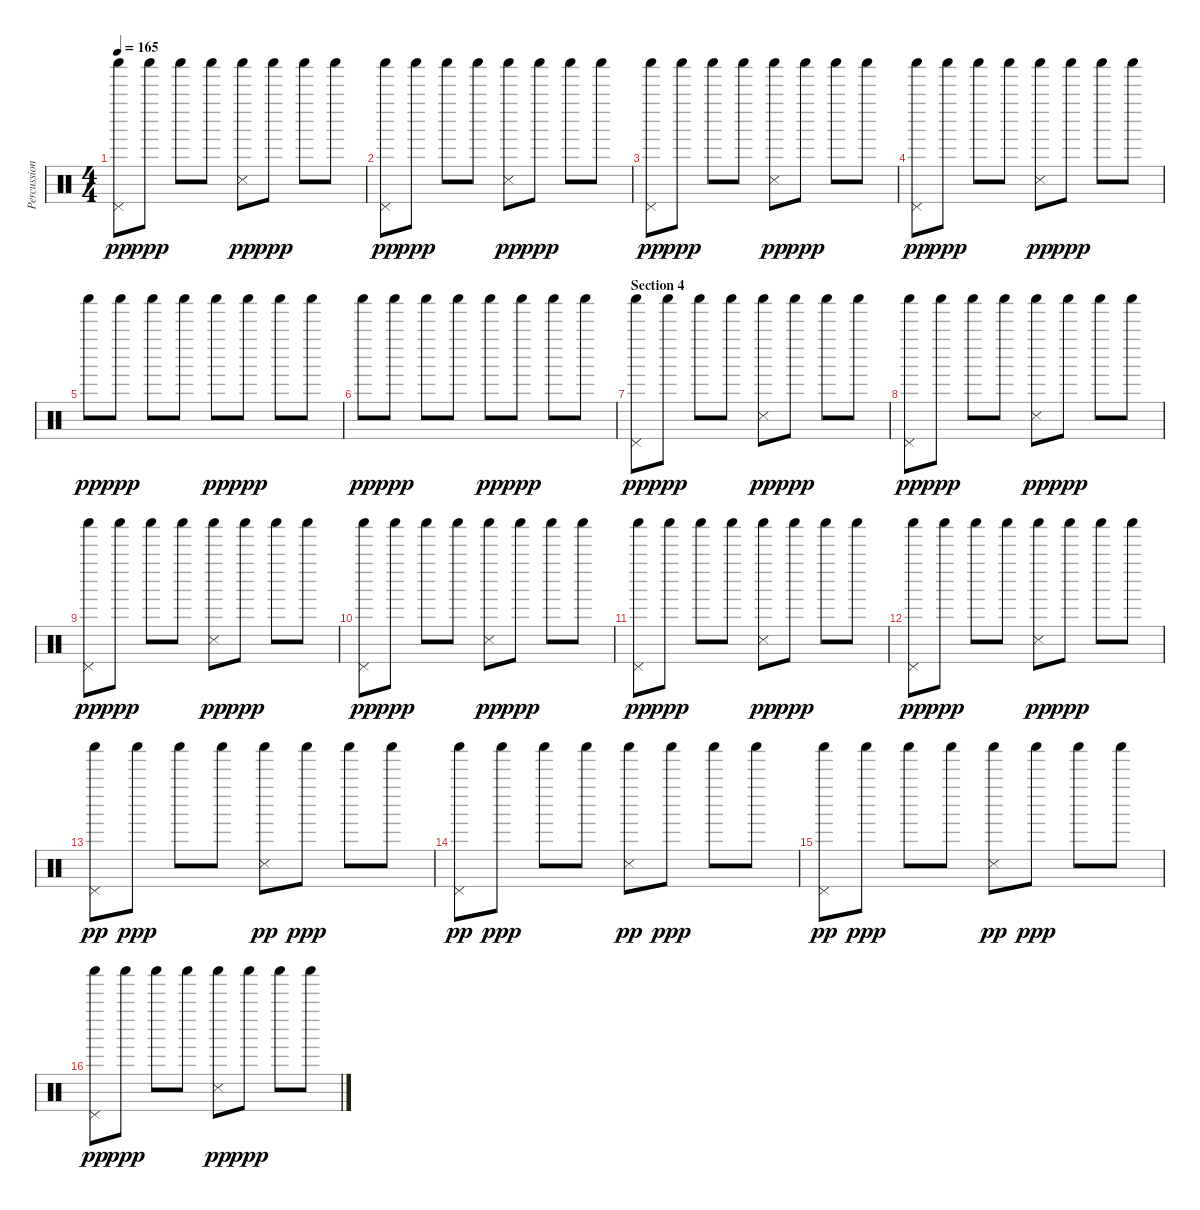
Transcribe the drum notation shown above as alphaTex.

\track ("Percussion" "Percussion") {instrument percussion}
\staff {score}
\articulation defaults
\ts (4 4)
\tempo 165
\clef neutral
\ks c
("Pedal Hi-Hat (hit)" "Shaker (hit)").8{dy pp} "Shaker (hit)".8{dy ppp} "Shaker (hit)".8 "Shaker (hit)".8 ("Snare (side stick) 3" "Shaker (hit)").8{dy pp} "Shaker (hit)".8{dy ppp} "Shaker (hit)".8 "Shaker (hit)".8 |
("Pedal Hi-Hat (hit)" "Shaker (hit)").8{dy pp} "Shaker (hit)".8{dy ppp} "Shaker (hit)".8 "Shaker (hit)".8 ("Snare (side stick) 3" "Shaker (hit)").8{dy pp} "Shaker (hit)".8{dy ppp} "Shaker (hit)".8 "Shaker (hit)".8 |
("Pedal Hi-Hat (hit)" "Shaker (hit)").8{dy pp} "Shaker (hit)".8{dy ppp} "Shaker (hit)".8 "Shaker (hit)".8 ("Snare (side stick) 3" "Shaker (hit)").8{dy pp} "Shaker (hit)".8{dy ppp} "Shaker (hit)".8 "Shaker (hit)".8 |
("Pedal Hi-Hat (hit)" "Shaker (hit)").8{dy pp} "Shaker (hit)".8{dy ppp} "Shaker (hit)".8 "Shaker (hit)".8 ("Snare (side stick) 3" "Shaker (hit)").8{dy pp} "Shaker (hit)".8{dy ppp} "Shaker (hit)".8 "Shaker (hit)".8 |
"Shaker (hit)".8{dy pp} "Shaker (hit)".8{dy ppp} "Shaker (hit)".8 "Shaker (hit)".8 "Shaker (hit)".8{dy pp} "Shaker (hit)".8{dy ppp} "Shaker (hit)".8 "Shaker (hit)".8 |
"Shaker (hit)".8{dy pp} "Shaker (hit)".8{dy ppp} "Shaker (hit)".8 "Shaker (hit)".8 "Shaker (hit)".8{dy pp} "Shaker (hit)".8{dy ppp} "Shaker (hit)".8 "Shaker (hit)".8 |
\section ("" "Section 4")
("Pedal Hi-Hat (hit)" "Shaker (hit)").8{dy pp} "Shaker (hit)".8{dy ppp} "Shaker (hit)".8 "Shaker (hit)".8 ("Snare (side stick) 3" "Shaker (hit)").8{dy pp} "Shaker (hit)".8{dy ppp} "Shaker (hit)".8 "Shaker (hit)".8 |
("Pedal Hi-Hat (hit)" "Shaker (hit)").8{dy pp} "Shaker (hit)".8{dy ppp} "Shaker (hit)".8 "Shaker (hit)".8 ("Snare (side stick) 3" "Shaker (hit)").8{dy pp} "Shaker (hit)".8{dy ppp} "Shaker (hit)".8 "Shaker (hit)".8 |
("Pedal Hi-Hat (hit)" "Shaker (hit)").8{dy pp} "Shaker (hit)".8{dy ppp} "Shaker (hit)".8 "Shaker (hit)".8 ("Snare (side stick) 3" "Shaker (hit)").8{dy pp} "Shaker (hit)".8{dy ppp} "Shaker (hit)".8 "Shaker (hit)".8 |
("Pedal Hi-Hat (hit)" "Shaker (hit)").8{dy pp} "Shaker (hit)".8{dy ppp} "Shaker (hit)".8 "Shaker (hit)".8 ("Snare (side stick) 3" "Shaker (hit)").8{dy pp} "Shaker (hit)".8{dy ppp} "Shaker (hit)".8 "Shaker (hit)".8 |
("Pedal Hi-Hat (hit)" "Shaker (hit)").8{dy pp} "Shaker (hit)".8{dy ppp} "Shaker (hit)".8 "Shaker (hit)".8 ("Snare (side stick) 3" "Shaker (hit)").8{dy pp} "Shaker (hit)".8{dy ppp} "Shaker (hit)".8 "Shaker (hit)".8 |
("Pedal Hi-Hat (hit)" "Shaker (hit)").8{dy pp} "Shaker (hit)".8{dy ppp} "Shaker (hit)".8 "Shaker (hit)".8 ("Snare (side stick) 3" "Shaker (hit)").8{dy pp} "Shaker (hit)".8{dy ppp} "Shaker (hit)".8 "Shaker (hit)".8 |
("Pedal Hi-Hat (hit)" "Shaker (hit)").8{dy pp} "Shaker (hit)".8{dy ppp} "Shaker (hit)".8 "Shaker (hit)".8 ("Snare (side stick) 3" "Shaker (hit)").8{dy pp} "Shaker (hit)".8{dy ppp} "Shaker (hit)".8 "Shaker (hit)".8 |
("Pedal Hi-Hat (hit)" "Shaker (hit)").8{dy pp} "Shaker (hit)".8{dy ppp} "Shaker (hit)".8 "Shaker (hit)".8 ("Snare (side stick) 3" "Shaker (hit)").8{dy pp} "Shaker (hit)".8{dy ppp} "Shaker (hit)".8 "Shaker (hit)".8 |
("Pedal Hi-Hat (hit)" "Shaker (hit)").8{dy pp} "Shaker (hit)".8{dy ppp} "Shaker (hit)".8 "Shaker (hit)".8 ("Snare (side stick) 3" "Shaker (hit)").8{dy pp} "Shaker (hit)".8{dy ppp} "Shaker (hit)".8 "Shaker (hit)".8 |
("Pedal Hi-Hat (hit)" "Shaker (hit)").8{dy pp} "Shaker (hit)".8{dy ppp} "Shaker (hit)".8 "Shaker (hit)".8 ("Snare (side stick) 3" "Shaker (hit)").8{dy pp} "Shaker (hit)".8{dy ppp} "Shaker (hit)".8 "Shaker (hit)".8
